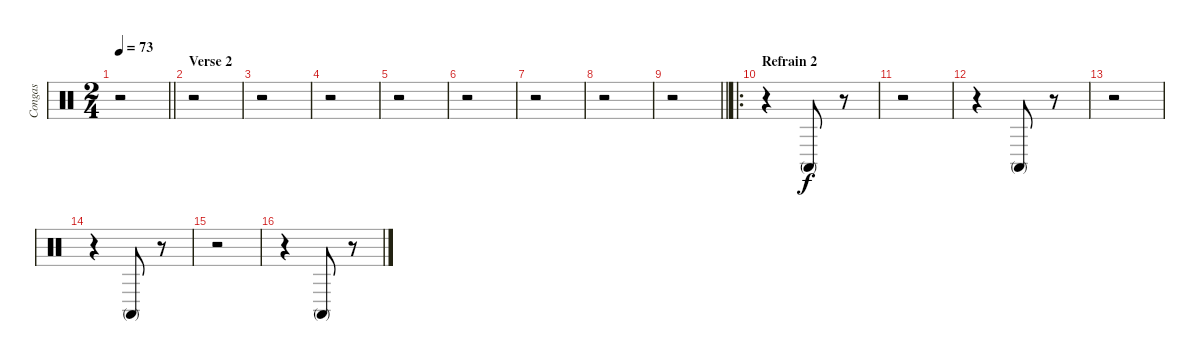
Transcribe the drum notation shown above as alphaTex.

\track ("Congas" "Congas") {instrument percussion}
\staff {score}
\articulation defaults
\ts (2 4)
\tempo 73
\clef neutral
\barLineRight lightlight
\ks c
r.2{dy f} |
\section ("" "Verse 2")
r.2 |
r.2 |
r.2 |
r.2 |
r.2 |
r.2 |
r.2 |
\barLineRight lightlight
r.2 |
\ro
\section ("" "Refrain 2")
r.4 "Conga high (mute)".8 r.8 |
r.2 |
r.4 "Conga high (mute)".8 r.8 |
r.2 |
r.4 "Conga high (mute)".8 r.8 |
r.2 |
r.4 "Conga high (mute)".8 r.8
